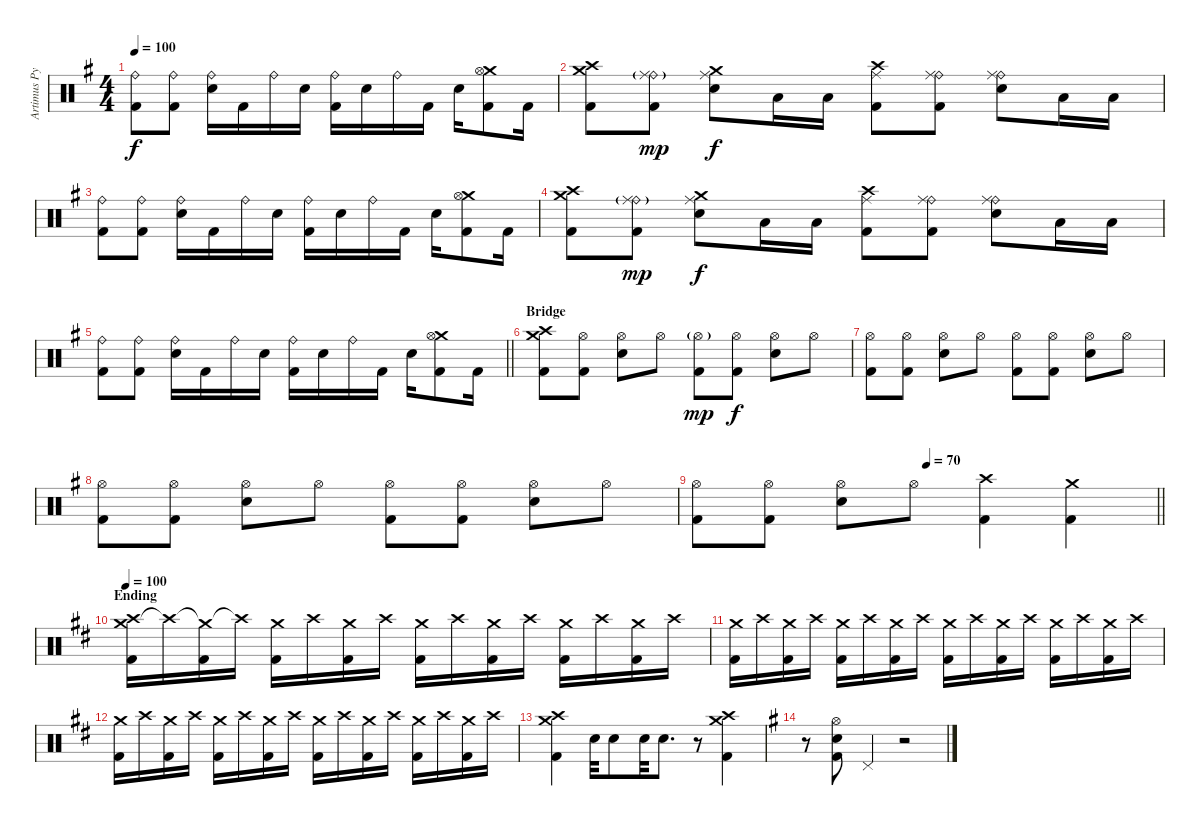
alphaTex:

\track ("Artimus Pyle" "Artimus Py") {instrument percussion}
\staff {score}
\articulation defaults
\ts (4 4)
\tempo 100
\clef neutral
\ks g
("Ride (bell)" "Kick (hit) 2").8{dy f} ("Ride (bell)" "Kick (hit) 2").8 ("Ride (bell)" "Snare (hit) 2").16 "Kick (hit) 2".16 "Ride (bell)".16 "Snare (hit) 2".16 ("Ride (bell)" "Kick (hit) 2").16 "Snare (hit) 2".16 "Ride (bell)".16 "Kick (hit) 2".16 "Snare (hit) 2".16 ("Crash medium (hit)" "Hi-Hat (open)" "Kick (hit) 2").8 "Kick (hit) 2".16 |
("Crash medium (hit)" "Crash high (hit)" "Kick (hit) 2").8 ("Ride (bell)" "Ride (middle)"{g} "Kick (hit) 2").8{dy mp} ("Crash medium (hit)" "Ride (middle)" "Snare (hit) 2").8{dy f} "Low Tom (hit)".16 "Low Tom (hit)".16 ("Crash high (hit)" "Ride (middle)" "Kick (hit) 2").8 ("Ride (bell)" "Ride (middle)" "Kick (hit) 2").8 ("Ride (bell)" "Ride (middle)" "Snare (hit) 2").8 "Low Tom (hit)".16 "Low Tom (hit)".16 |
("Ride (bell)" "Kick (hit) 2").8 ("Ride (bell)" "Kick (hit) 2").8 ("Ride (bell)" "Snare (hit) 2").16 "Kick (hit) 2".16 "Ride (bell)".16 "Snare (hit) 2".16 ("Ride (bell)" "Kick (hit) 2").16 "Snare (hit) 2".16 "Ride (bell)".16 "Kick (hit) 2".16 "Snare (hit) 2".16 ("Crash medium (hit)" "Hi-Hat (open)" "Kick (hit) 2").8 "Kick (hit) 2".16 |
("Crash medium (hit)" "Crash high (hit)" "Kick (hit) 2").8 ("Ride (bell)" "Ride (middle)"{g} "Kick (hit) 2").8{dy mp} ("Crash medium (hit)" "Ride (middle)" "Snare (hit) 2").8{dy f} "Low Tom (hit)".16 "Low Tom (hit)".16 ("Crash high (hit)" "Ride (middle)" "Kick (hit) 2").8 ("Ride (bell)" "Ride (middle)" "Kick (hit) 2").8 ("Ride (bell)" "Ride (middle)" "Snare (hit) 2").8 "Low Tom (hit)".16 "Low Tom (hit)".16 |
\barLineRight lightlight
("Ride (bell)" "Kick (hit) 2").8 ("Ride (bell)" "Kick (hit) 2").8 ("Ride (bell)" "Snare (hit) 2").16 "Kick (hit) 2".16 "Ride (bell)".16 "Snare (hit) 2".16 ("Ride (bell)" "Kick (hit) 2").16 "Snare (hit) 2".16 "Ride (bell)".16 "Kick (hit) 2".16 "Snare (hit) 2".16 ("Crash medium (hit)" "Hi-Hat (open)" "Kick (hit) 2").8 "Kick (hit) 2".16 |
\section ("" "Bridge")
("Crash medium (hit)" "Crash high (hit)" "Kick (hit) 2").8 ("Hi-Hat (open)" "Kick (hit) 2").8 ("Snare (hit) 2" "Hi-Hat (open)").8 "Hi-Hat (open)".8 ("Hi-Hat (open)"{g} "Kick (hit) 2").8{dy mp} ("Hi-Hat (open)" "Kick (hit) 2").8{dy f} ("Snare (hit) 2" "Hi-Hat (open)").8 "Hi-Hat (open)".8 |
("Hi-Hat (open)" "Kick (hit) 2").8 ("Hi-Hat (open)" "Kick (hit) 2").8 ("Snare (hit) 2" "Hi-Hat (open)").8 "Hi-Hat (open)".8 ("Hi-Hat (open)" "Kick (hit) 2").8 ("Hi-Hat (open)" "Kick (hit) 2").8 ("Snare (hit) 2" "Hi-Hat (open)").8 "Hi-Hat (open)".8 |
("Hi-Hat (open)" "Kick (hit) 2").8 ("Hi-Hat (open)" "Kick (hit) 2").8 ("Snare (hit) 2" "Hi-Hat (open)").8 "Hi-Hat (open)".8 ("Hi-Hat (open)" "Kick (hit) 2").8 ("Hi-Hat (open)" "Kick (hit) 2").8 ("Snare (hit) 2" "Hi-Hat (open)").8 "Hi-Hat (open)".8 |
\tempo (70 0.5)
\barLineRight lightlight
("Hi-Hat (open)" "Kick (hit) 2").8 ("Hi-Hat (open)" "Kick (hit) 2").8 ("Snare (hit) 2" "Hi-Hat (open)").8 "Hi-Hat (open)".8 ("Crash high (hit)" "Kick (hit) 2").4 ("Crash medium (hit)" "Kick (hit) 2").4 |
\section ("" "Ending")
\tempo 100
\ks d
("Crash medium (hit)" "Crash high (hit)" "Kick (hit) 2").16 "Crash high (hit)"{t}.16 ("Crash medium (hit)"{t} "Kick (hit) 2").16 "Crash high (hit)"{t}.16 ("Crash medium (hit)" "Kick (hit) 2").16 "Crash high (hit)".16 ("Crash medium (hit)" "Kick (hit) 2").16 "Crash high (hit)".16 ("Crash medium (hit)" "Kick (hit) 2").16 "Crash high (hit)".16 ("Crash medium (hit)" "Kick (hit) 2").16 "Crash high (hit)".16 ("Crash medium (hit)" "Kick (hit) 2").16 "Crash high (hit)".16 ("Crash medium (hit)" "Kick (hit) 2").16 "Crash high (hit)".16 |
("Crash medium (hit)" "Kick (hit) 2").16 "Crash high (hit)".16 ("Crash medium (hit)" "Kick (hit) 2").16 "Crash high (hit)".16 ("Crash medium (hit)" "Kick (hit) 2").16 "Crash high (hit)".16 ("Crash medium (hit)" "Kick (hit) 2").16 "Crash high (hit)".16 ("Crash medium (hit)" "Kick (hit) 2").16 "Crash high (hit)".16 ("Crash medium (hit)" "Kick (hit) 2").16 "Crash high (hit)".16 ("Crash medium (hit)" "Kick (hit) 2").16 "Crash high (hit)".16 ("Crash medium (hit)" "Kick (hit) 2").16 "Crash high (hit)".16 |
("Crash medium (hit)" "Kick (hit) 2").16 "Crash high (hit)".16 ("Crash medium (hit)" "Kick (hit) 2").16 "Crash high (hit)".16 ("Crash medium (hit)" "Kick (hit) 2").16 "Crash high (hit)".16 ("Crash medium (hit)" "Kick (hit) 2").16 "Crash high (hit)".16 ("Crash medium (hit)" "Kick (hit) 2").16 "Crash high (hit)".16 ("Crash medium (hit)" "Kick (hit) 2").16 "Crash high (hit)".16 ("Crash medium (hit)" "Kick (hit) 2").16 "Crash high (hit)".16 ("Crash medium (hit)" "Kick (hit) 2").16 "Crash high (hit)".16 |
("Crash medium (hit)" "Crash high (hit)" "Kick (hit) 2").4 "Snare (hit) 2".32 "Snare (hit) 2".8 "Snare (hit) 2".32 "Snare (hit) 2".8{d} r.8 ("Crash medium (hit)" "Crash high (hit)" "Kick (hit) 2").4 |
\ks g
r.8 ("Snare (hit) 2" "Hi-Hat (open)" "Kick (hit) 2").8 "Pedal Hi-Hat (hit)".4 r.2
